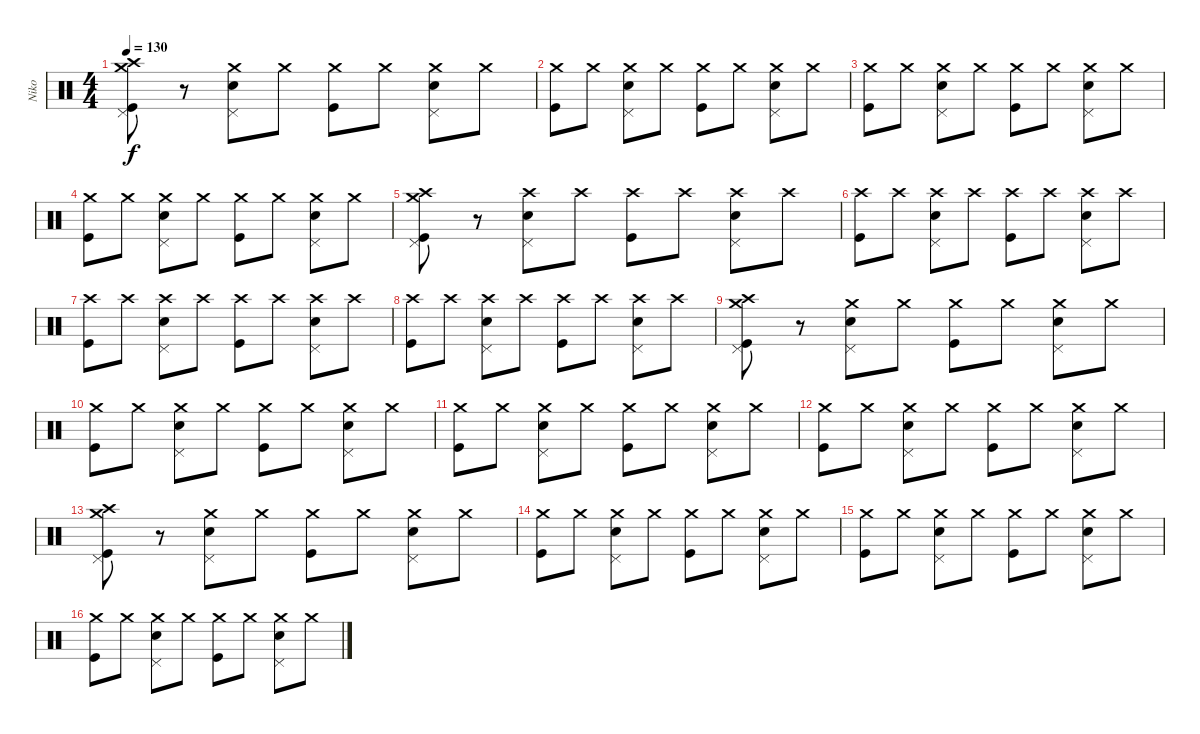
\track ("Niko" "Niko") {instrument percussion}
\staff {score}
\articulation defaults
\ts (4 4)
\tempo 130
\clef neutral
\ks c
("Kick (hit)" "Crash medium (hit)" "Pedal Hi-Hat (hit)" "Crash high (hit)").8{dy f} r.8 ("Snare (hit) 2" "Crash medium (hit)" "Pedal Hi-Hat (hit)").8 "Crash medium (hit)".8 ("Kick (hit)" "Crash medium (hit)").8 "Crash medium (hit)".8 ("Snare (hit) 2" "Crash medium (hit)" "Pedal Hi-Hat (hit)").8 "Crash medium (hit)".8 |
("Kick (hit)" "Crash medium (hit)").8 "Crash medium (hit)".8 ("Snare (hit) 2" "Crash medium (hit)" "Pedal Hi-Hat (hit)").8 "Crash medium (hit)".8 ("Kick (hit)" "Crash medium (hit)").8 "Crash medium (hit)".8 ("Snare (hit) 2" "Crash medium (hit)" "Pedal Hi-Hat (hit)").8 "Crash medium (hit)".8 |
("Kick (hit)" "Crash medium (hit)").8 "Crash medium (hit)".8 ("Snare (hit) 2" "Crash medium (hit)" "Pedal Hi-Hat (hit)").8 "Crash medium (hit)".8 ("Kick (hit)" "Crash medium (hit)").8 "Crash medium (hit)".8 ("Snare (hit) 2" "Crash medium (hit)" "Pedal Hi-Hat (hit)").8 "Crash medium (hit)".8 |
("Kick (hit)" "Crash medium (hit)").8 "Crash medium (hit)".8 ("Snare (hit) 2" "Crash medium (hit)" "Pedal Hi-Hat (hit)").8 "Crash medium (hit)".8 ("Kick (hit)" "Crash medium (hit)").8 "Crash medium (hit)".8 ("Snare (hit) 2" "Crash medium (hit)" "Pedal Hi-Hat (hit)").8 "Crash medium (hit)".8 |
("Kick (hit)" "Crash medium (hit)" "Pedal Hi-Hat (hit)" "Crash high (hit)").8 r.8 ("Snare (hit) 2" "Crash high (hit)" "Pedal Hi-Hat (hit)").8 "Crash high (hit)".8 ("Kick (hit)" "Crash high (hit)").8 "Crash high (hit)".8 ("Snare (hit) 2" "Crash high (hit)" "Pedal Hi-Hat (hit)").8 "Crash high (hit)".8 |
("Kick (hit)" "Crash high (hit)").8 "Crash high (hit)".8 ("Snare (hit) 2" "Crash high (hit)" "Pedal Hi-Hat (hit)").8 "Crash high (hit)".8 ("Kick (hit)" "Crash high (hit)").8 "Crash high (hit)".8 ("Snare (hit) 2" "Crash high (hit)" "Pedal Hi-Hat (hit)").8 "Crash high (hit)".8 |
("Kick (hit)" "Crash high (hit)").8 "Crash high (hit)".8 ("Snare (hit) 2" "Crash high (hit)" "Pedal Hi-Hat (hit)").8 "Crash high (hit)".8 ("Kick (hit)" "Crash high (hit)").8 "Crash high (hit)".8 ("Snare (hit) 2" "Crash high (hit)" "Pedal Hi-Hat (hit)").8 "Crash high (hit)".8 |
("Kick (hit)" "Crash high (hit)").8 "Crash high (hit)".8 ("Snare (hit) 2" "Crash high (hit)" "Pedal Hi-Hat (hit)").8 "Crash high (hit)".8 ("Kick (hit)" "Crash high (hit)").8 "Crash high (hit)".8 ("Snare (hit) 2" "Crash high (hit)" "Pedal Hi-Hat (hit)").8 "Crash high (hit)".8 |
("Kick (hit)" "Crash medium (hit)" "Pedal Hi-Hat (hit)" "Crash high (hit)").8 r.8 ("Snare (hit) 2" "Crash medium (hit)" "Pedal Hi-Hat (hit)").8 "Crash medium (hit)".8 ("Kick (hit)" "Crash medium (hit)").8 "Crash medium (hit)".8 ("Snare (hit) 2" "Crash medium (hit)" "Pedal Hi-Hat (hit)").8 "Crash medium (hit)".8 |
("Kick (hit)" "Crash medium (hit)").8 "Crash medium (hit)".8 ("Snare (hit) 2" "Crash medium (hit)" "Pedal Hi-Hat (hit)").8 "Crash medium (hit)".8 ("Kick (hit)" "Crash medium (hit)").8 "Crash medium (hit)".8 ("Snare (hit) 2" "Crash medium (hit)" "Pedal Hi-Hat (hit)").8 "Crash medium (hit)".8 |
("Kick (hit)" "Crash medium (hit)").8 "Crash medium (hit)".8 ("Snare (hit) 2" "Crash medium (hit)" "Pedal Hi-Hat (hit)").8 "Crash medium (hit)".8 ("Kick (hit)" "Crash medium (hit)").8 "Crash medium (hit)".8 ("Snare (hit) 2" "Crash medium (hit)" "Pedal Hi-Hat (hit)").8 "Crash medium (hit)".8 |
("Kick (hit)" "Crash medium (hit)").8 "Crash medium (hit)".8 ("Snare (hit) 2" "Crash medium (hit)" "Pedal Hi-Hat (hit)").8 "Crash medium (hit)".8 ("Kick (hit)" "Crash medium (hit)").8 "Crash medium (hit)".8 ("Snare (hit) 2" "Crash medium (hit)" "Pedal Hi-Hat (hit)").8 "Crash medium (hit)".8 |
("Kick (hit)" "Crash medium (hit)" "Pedal Hi-Hat (hit)" "Crash high (hit)").8 r.8 ("Snare (hit) 2" "Crash medium (hit)" "Pedal Hi-Hat (hit)").8 "Crash medium (hit)".8 ("Kick (hit)" "Crash medium (hit)").8 "Crash medium (hit)".8 ("Snare (hit) 2" "Crash medium (hit)" "Pedal Hi-Hat (hit)").8 "Crash medium (hit)".8 |
("Kick (hit)" "Crash medium (hit)").8 "Crash medium (hit)".8 ("Snare (hit) 2" "Crash medium (hit)" "Pedal Hi-Hat (hit)").8 "Crash medium (hit)".8 ("Kick (hit)" "Crash medium (hit)").8 "Crash medium (hit)".8 ("Snare (hit) 2" "Crash medium (hit)" "Pedal Hi-Hat (hit)").8 "Crash medium (hit)".8 |
("Kick (hit)" "Crash medium (hit)").8 "Crash medium (hit)".8 ("Snare (hit) 2" "Crash medium (hit)" "Pedal Hi-Hat (hit)").8 "Crash medium (hit)".8 ("Kick (hit)" "Crash medium (hit)").8 "Crash medium (hit)".8 ("Snare (hit) 2" "Crash medium (hit)" "Pedal Hi-Hat (hit)").8 "Crash medium (hit)".8 |
("Kick (hit)" "Crash medium (hit)").8 "Crash medium (hit)".8 ("Snare (hit) 2" "Crash medium (hit)" "Pedal Hi-Hat (hit)").8 "Crash medium (hit)".8 ("Kick (hit)" "Crash medium (hit)").8 "Crash medium (hit)".8 ("Snare (hit) 2" "Crash medium (hit)" "Pedal Hi-Hat (hit)").8 "Crash medium (hit)".8
